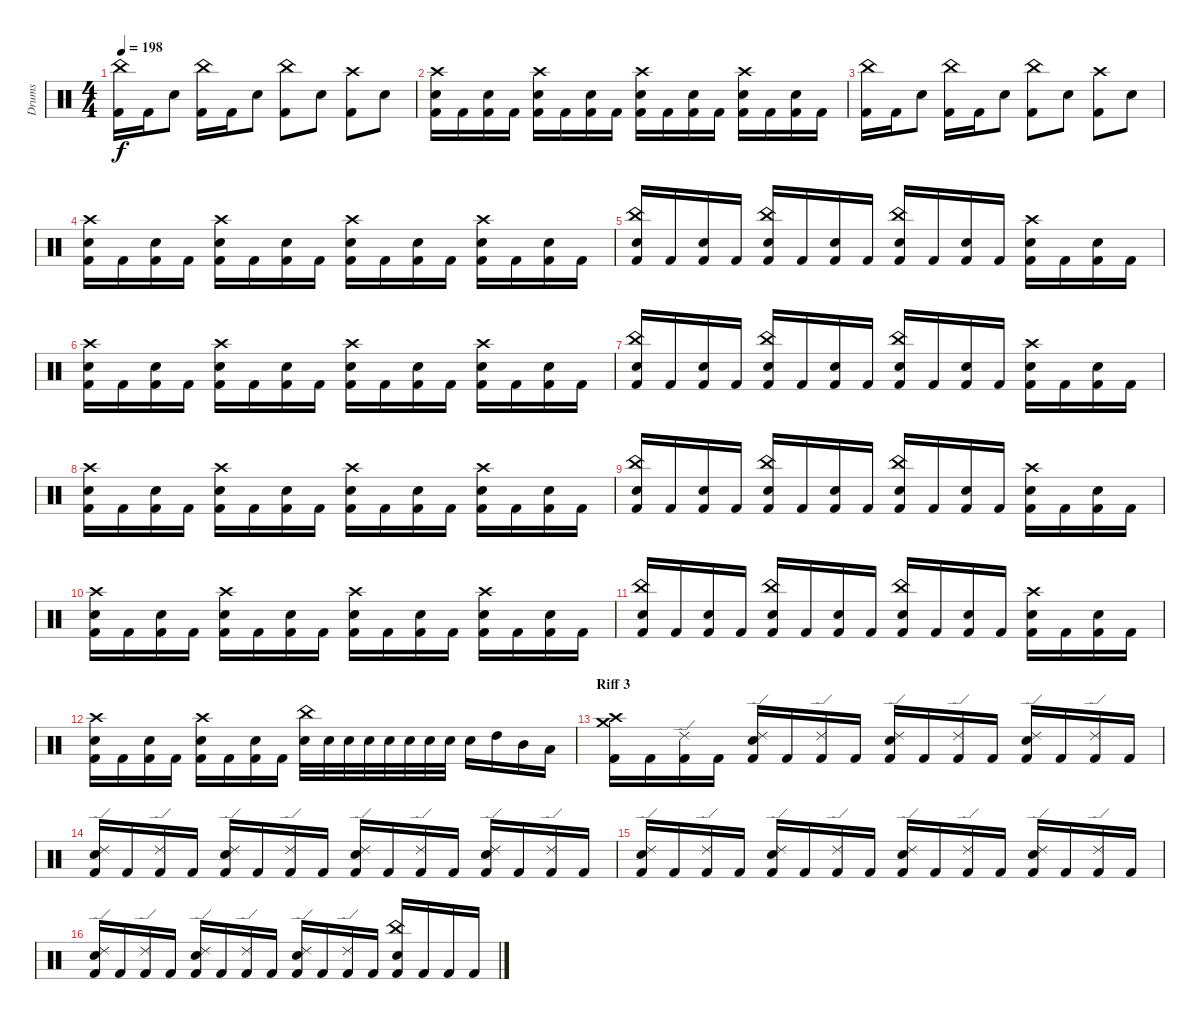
\track ("Drums" "Drums") {instrument percussion}
\staff {score}
\articulation defaults
\ts (4 4)
\tempo 198
\clef neutral
\ks c
("Kick (hit) 2" "China (hit)").16{dy f} "Kick (hit) 2".16 "Snare (hit) 2".8 ("Kick (hit) 2" "China (hit)").16 "Kick (hit) 2".16 "Snare (hit) 2".8 ("Kick (hit) 2" "China (hit)").8 "Snare (hit) 2".8 ("Kick (hit) 2" "Crash high (hit)").8 "Snare (hit) 2".8 |
("Kick (hit) 2" "Snare (hit) 2" "Crash high (hit)").16 "Kick (hit) 2".16 ("Kick (hit) 2" "Snare (hit) 2").16 "Kick (hit) 2".16 ("Kick (hit) 2" "Snare (hit) 2" "Crash high (hit)").16 "Kick (hit) 2".16 ("Kick (hit) 2" "Snare (hit) 2").16 "Kick (hit) 2".16 ("Kick (hit) 2" "Snare (hit) 2" "Crash high (hit)").16 "Kick (hit) 2".16 ("Kick (hit) 2" "Snare (hit) 2").16 "Kick (hit) 2".16 ("Kick (hit) 2" "Snare (hit) 2" "Crash high (hit)").16 "Kick (hit) 2".16 ("Kick (hit) 2" "Snare (hit) 2").16 "Kick (hit) 2".16 |
("Kick (hit) 2" "China (hit)").16 "Kick (hit) 2".16 "Snare (hit) 2".8 ("Kick (hit) 2" "China (hit)").16 "Kick (hit) 2".16 "Snare (hit) 2".8 ("Kick (hit) 2" "China (hit)").8 "Snare (hit) 2".8 ("Kick (hit) 2" "Crash high (hit)").8 "Snare (hit) 2".8 |
("Kick (hit) 2" "Snare (hit) 2" "Crash high (hit)").16 "Kick (hit) 2".16 ("Kick (hit) 2" "Snare (hit) 2").16 "Kick (hit) 2".16 ("Kick (hit) 2" "Snare (hit) 2" "Crash high (hit)").16 "Kick (hit) 2".16 ("Kick (hit) 2" "Snare (hit) 2").16 "Kick (hit) 2".16 ("Kick (hit) 2" "Snare (hit) 2" "Crash high (hit)").16 "Kick (hit) 2".16 ("Kick (hit) 2" "Snare (hit) 2").16 "Kick (hit) 2".16 ("Kick (hit) 2" "Snare (hit) 2" "Crash high (hit)").16 "Kick (hit) 2".16 ("Kick (hit) 2" "Snare (hit) 2").16 "Kick (hit) 2".16 |
("Kick (hit) 2" "Snare (hit) 2" "China (hit)").16 "Kick (hit) 2".16 ("Kick (hit) 2" "Snare (hit) 2").16 "Kick (hit) 2".16 ("Kick (hit) 2" "Snare (hit) 2" "China (hit)").16 "Kick (hit) 2".16 ("Kick (hit) 2" "Snare (hit) 2").16 "Kick (hit) 2".16 ("Kick (hit) 2" "Snare (hit) 2" "China (hit)").16 "Kick (hit) 2".16 ("Kick (hit) 2" "Snare (hit) 2").16 "Kick (hit) 2".16 ("Kick (hit) 2" "Snare (hit) 2" "Crash high (hit)").16 "Kick (hit) 2".16 ("Kick (hit) 2" "Snare (hit) 2").16 "Kick (hit) 2".16 |
("Kick (hit) 2" "Snare (hit) 2" "Crash high (hit)").16 "Kick (hit) 2".16 ("Kick (hit) 2" "Snare (hit) 2").16 "Kick (hit) 2".16 ("Kick (hit) 2" "Snare (hit) 2" "Crash high (hit)").16 "Kick (hit) 2".16 ("Kick (hit) 2" "Snare (hit) 2").16 "Kick (hit) 2".16 ("Kick (hit) 2" "Snare (hit) 2" "Crash high (hit)").16 "Kick (hit) 2".16 ("Kick (hit) 2" "Snare (hit) 2").16 "Kick (hit) 2".16 ("Kick (hit) 2" "Snare (hit) 2" "Crash high (hit)").16 "Kick (hit) 2".16 ("Kick (hit) 2" "Snare (hit) 2").16 "Kick (hit) 2".16 |
("Kick (hit) 2" "Snare (hit) 2" "China (hit)").16 "Kick (hit) 2".16 ("Kick (hit) 2" "Snare (hit) 2").16 "Kick (hit) 2".16 ("Kick (hit) 2" "Snare (hit) 2" "China (hit)").16 "Kick (hit) 2".16 ("Kick (hit) 2" "Snare (hit) 2").16 "Kick (hit) 2".16 ("Kick (hit) 2" "Snare (hit) 2" "China (hit)").16 "Kick (hit) 2".16 ("Kick (hit) 2" "Snare (hit) 2").16 "Kick (hit) 2".16 ("Kick (hit) 2" "Snare (hit) 2" "Crash high (hit)").16 "Kick (hit) 2".16 ("Kick (hit) 2" "Snare (hit) 2").16 "Kick (hit) 2".16 |
("Kick (hit) 2" "Snare (hit) 2" "Crash high (hit)").16 "Kick (hit) 2".16 ("Kick (hit) 2" "Snare (hit) 2").16 "Kick (hit) 2".16 ("Kick (hit) 2" "Snare (hit) 2" "Crash high (hit)").16 "Kick (hit) 2".16 ("Kick (hit) 2" "Snare (hit) 2").16 "Kick (hit) 2".16 ("Kick (hit) 2" "Snare (hit) 2" "Crash high (hit)").16 "Kick (hit) 2".16 ("Kick (hit) 2" "Snare (hit) 2").16 "Kick (hit) 2".16 ("Kick (hit) 2" "Snare (hit) 2" "Crash high (hit)").16 "Kick (hit) 2".16 ("Kick (hit) 2" "Snare (hit) 2").16 "Kick (hit) 2".16 |
("Kick (hit) 2" "Snare (hit) 2" "China (hit)").16 "Kick (hit) 2".16 ("Kick (hit) 2" "Snare (hit) 2").16 "Kick (hit) 2".16 ("Kick (hit) 2" "Snare (hit) 2" "China (hit)").16 "Kick (hit) 2".16 ("Kick (hit) 2" "Snare (hit) 2").16 "Kick (hit) 2".16 ("Kick (hit) 2" "Snare (hit) 2" "China (hit)").16 "Kick (hit) 2".16 ("Kick (hit) 2" "Snare (hit) 2").16 "Kick (hit) 2".16 ("Kick (hit) 2" "Snare (hit) 2" "Crash high (hit)").16 "Kick (hit) 2".16 ("Kick (hit) 2" "Snare (hit) 2").16 "Kick (hit) 2".16 |
("Kick (hit) 2" "Snare (hit) 2" "Crash high (hit)").16 "Kick (hit) 2".16 ("Kick (hit) 2" "Snare (hit) 2").16 "Kick (hit) 2".16 ("Kick (hit) 2" "Snare (hit) 2" "Crash high (hit)").16 "Kick (hit) 2".16 ("Kick (hit) 2" "Snare (hit) 2").16 "Kick (hit) 2".16 ("Kick (hit) 2" "Snare (hit) 2" "Crash high (hit)").16 "Kick (hit) 2".16 ("Kick (hit) 2" "Snare (hit) 2").16 "Kick (hit) 2".16 ("Kick (hit) 2" "Snare (hit) 2" "Crash high (hit)").16 "Kick (hit) 2".16 ("Kick (hit) 2" "Snare (hit) 2").16 "Kick (hit) 2".16 |
("Kick (hit) 2" "Snare (hit) 2" "China (hit)").16 "Kick (hit) 2".16 ("Kick (hit) 2" "Snare (hit) 2").16 "Kick (hit) 2".16 ("Kick (hit) 2" "Snare (hit) 2" "China (hit)").16 "Kick (hit) 2".16 ("Kick (hit) 2" "Snare (hit) 2").16 "Kick (hit) 2".16 ("Kick (hit) 2" "Snare (hit) 2" "China (hit)").16 "Kick (hit) 2".16 ("Kick (hit) 2" "Snare (hit) 2").16 "Kick (hit) 2".16 ("Kick (hit) 2" "Snare (hit) 2" "Crash high (hit)").16 "Kick (hit) 2".16 ("Kick (hit) 2" "Snare (hit) 2").16 "Kick (hit) 2".16 |
("Kick (hit) 2" "Snare (hit) 2" "Crash high (hit)").16 "Kick (hit) 2".16 ("Kick (hit) 2" "Snare (hit) 2").16 "Kick (hit) 2".16 ("Kick (hit) 2" "Snare (hit) 2" "Crash high (hit)").16 "Kick (hit) 2".16 ("Kick (hit) 2" "Snare (hit) 2").16 "Kick (hit) 2".16 ("Snare (hit) 2" "China (hit)").32 "Snare (hit) 2".32 "Snare (hit) 2".32 "Snare (hit) 2".32 "Snare (hit) 2".32 "Snare (hit) 2".32 "Snare (hit) 2".32 "Snare (hit) 2".32 "Snare (hit) 2".16 "High Tom (hit)".16 "Mid Tom (hit)".16 "Low Tom (hit)".16 |
\section ("" "Riff 3")
("Kick (hit) 2" "Crash high (hit)" "Crash medium (hit)").16 "Kick (hit) 2".16 ("Kick (hit) 2" "Ride (edge) 2").16 "Kick (hit) 2".16 ("Kick (hit) 2" "Snare (hit) 2" "Ride (edge) 2").16 "Kick (hit) 2".16 ("Kick (hit) 2" "Ride (edge) 2").16 "Kick (hit) 2".16 ("Kick (hit) 2" "Snare (hit) 2" "Ride (edge) 2").16 "Kick (hit) 2".16 ("Kick (hit) 2" "Ride (edge) 2").16 "Kick (hit) 2".16 ("Kick (hit) 2" "Snare (hit) 2" "Ride (edge) 2").16 "Kick (hit) 2".16 ("Kick (hit) 2" "Ride (edge) 2").16 "Kick (hit) 2".16 |
("Kick (hit) 2" "Snare (hit) 2" "Ride (edge) 2").16 "Kick (hit) 2".16 ("Kick (hit) 2" "Ride (edge) 2").16 "Kick (hit) 2".16 ("Kick (hit) 2" "Snare (hit) 2" "Ride (edge) 2").16 "Kick (hit) 2".16 ("Kick (hit) 2" "Ride (edge) 2").16 "Kick (hit) 2".16 ("Kick (hit) 2" "Snare (hit) 2" "Ride (edge) 2").16 "Kick (hit) 2".16 ("Kick (hit) 2" "Ride (edge) 2").16 "Kick (hit) 2".16 ("Kick (hit) 2" "Snare (hit) 2" "Ride (edge) 2").16 "Kick (hit) 2".16 ("Kick (hit) 2" "Ride (edge) 2").16 "Kick (hit) 2".16 |
("Kick (hit) 2" "Snare (hit) 2" "Ride (edge) 2").16 "Kick (hit) 2".16 ("Kick (hit) 2" "Ride (edge) 2").16 "Kick (hit) 2".16 ("Kick (hit) 2" "Snare (hit) 2" "Ride (edge) 2").16 "Kick (hit) 2".16 ("Kick (hit) 2" "Ride (edge) 2").16 "Kick (hit) 2".16 ("Kick (hit) 2" "Snare (hit) 2" "Ride (edge) 2").16 "Kick (hit) 2".16 ("Kick (hit) 2" "Ride (edge) 2").16 "Kick (hit) 2".16 ("Kick (hit) 2" "Snare (hit) 2" "Ride (edge) 2").16 "Kick (hit) 2".16 ("Kick (hit) 2" "Ride (edge) 2").16 "Kick (hit) 2".16 |
("Kick (hit) 2" "Snare (hit) 2" "Ride (edge) 2").16 "Kick (hit) 2".16 ("Kick (hit) 2" "Ride (edge) 2").16 "Kick (hit) 2".16 ("Kick (hit) 2" "Snare (hit) 2" "Ride (edge) 2").16 "Kick (hit) 2".16 ("Kick (hit) 2" "Ride (edge) 2").16 "Kick (hit) 2".16 ("Kick (hit) 2" "Snare (hit) 2" "Ride (edge) 2").16 "Kick (hit) 2".16 ("Kick (hit) 2" "Ride (edge) 2").16 "Kick (hit) 2".16 ("Kick (hit) 2" "Snare (hit) 2" "China (hit)").16 "Kick (hit) 2".16 "Kick (hit) 2".16 "Kick (hit) 2".16
